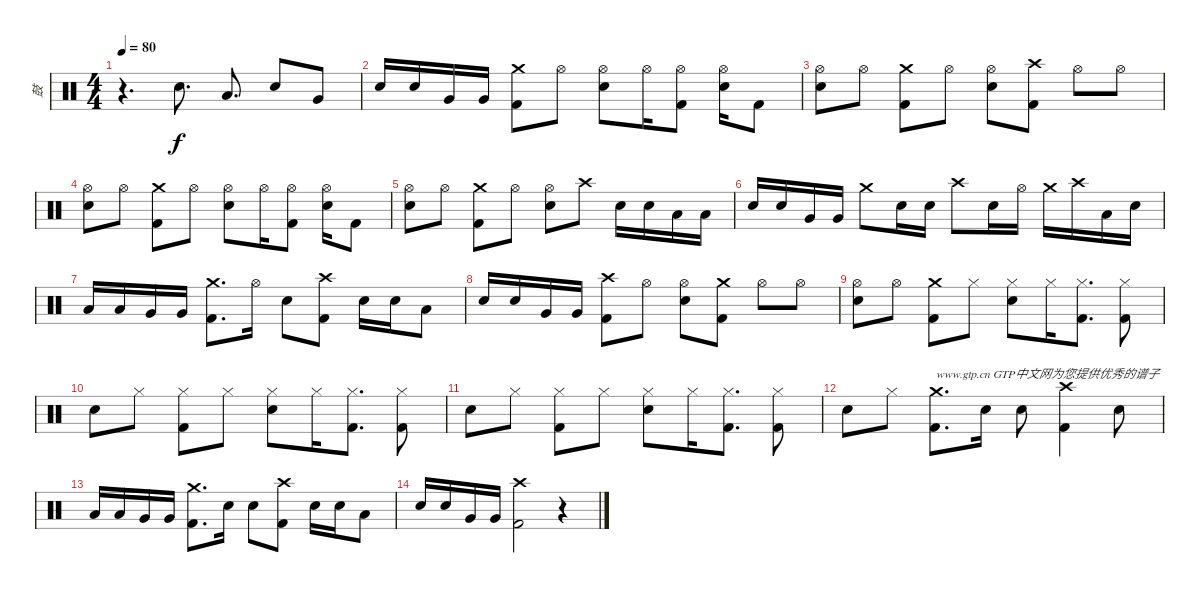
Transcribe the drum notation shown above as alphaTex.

\track ("鼓" "鼓") {instrument percussion}
\staff {score}
\articulation defaults
\ts (4 4)
\tempo 80
\clef neutral
\ks c
r.4{d dy f} "Snare (hit) 2".8{d} "Low Tom (hit)".8{d} "Snare (hit) 2".8 "Very Low Tom (hit)".8 |
"Snare (hit) 2".16 "Snare (hit) 2".16 "Very Low Tom (hit)".16 "Very Low Tom (hit)".16 ("Crash medium (hit)" "Kick (hit) 2").8 "Hi-Hat (open)".8 ("Hi-Hat (open)" "Snare (hit) 2").8 "Hi-Hat (open)".16 ("Hi-Hat (open)" "Kick (hit) 2").8 ("Hi-Hat (open)" "Snare (hit) 2").16 "Kick (hit) 2".8 |
("Hi-Hat (open)" "Snare (hit) 2").8 "Hi-Hat (open)".8 ("Crash medium (hit)" "Kick (hit) 2").8 "Hi-Hat (open)".8 ("Hi-Hat (open)" "Snare (hit) 2").8 ("Crash high (hit)" "Kick (hit) 2").8 "Hi-Hat (open)".8 "Hi-Hat (open)".8 |
("Hi-Hat (open)" "Snare (hit) 2").8 "Hi-Hat (open)".8 ("Crash medium (hit)" "Kick (hit) 2").8 "Hi-Hat (open)".8 ("Hi-Hat (open)" "Snare (hit) 2").8 "Hi-Hat (open)".16 ("Hi-Hat (open)" "Kick (hit) 2").8 ("Hi-Hat (open)" "Snare (hit) 2").16 "Kick (hit) 2".8 |
("Hi-Hat (open)" "Snare (hit) 2").8 "Hi-Hat (open)".8 ("Crash medium (hit)" "Kick (hit) 2").8 "Hi-Hat (open)".8 ("Hi-Hat (open)" "Snare (hit) 2").8 "Crash high (hit)".8 "Snare (hit) 2".16 "Snare (hit) 2".16 "Low Tom (hit)".16 "Low Tom (hit)".16 |
"Snare (hit) 2".16 "Snare (hit) 2".16 "Very Low Tom (hit)".16 "Very Low Tom (hit)".16 "Crash medium (hit)".8 "Snare (hit) 2".16 "Snare (hit) 2".16 "Crash high (hit)".8 "Snare (hit) 2".16 "Hi-Hat (open)".16 "Crash medium (hit)".16 "Crash high (hit)".16 "Low Tom (hit)".16 "Snare (hit)".16 |
"Low Tom (hit)".16 "Low Tom (hit)".16 "Very Low Tom (hit)".16 "Very Low Tom (hit)".16 ("Crash medium (hit)" "Kick (hit) 2").8{d} "Hi-Hat (open)".16 "Snare (hit) 2".8 ("Crash high (hit)" "Kick (hit) 2").8 "Snare (hit) 2".16 "Snare (hit) 2".16 "Low Tom (hit)".8 |
"Snare (hit) 2".16 "Snare (hit) 2".16 "Very Low Tom (hit)".16 "Very Low Tom (hit)".16 ("Crash high (hit)" "Kick (hit) 2").8 "Hi-Hat (open)".8 ("Hi-Hat (open)" "Snare (hit) 2").8 ("Crash medium (hit)" "Kick (hit) 2").8 "Hi-Hat (open)".8 "Hi-Hat (open)".8 |
("Hi-Hat (open)" "Snare (hit) 2").8 "Hi-Hat (open)".8 ("Crash medium (hit)" "Kick (hit) 2").8 "Hi-Hat (closed)".8 ("Hi-Hat (closed)" "Snare (hit) 2").8 "Hi-Hat (closed)".16 ("Hi-Hat (closed)" "Kick (hit) 2").8{d} ("Hi-Hat (closed)" "Kick (hit) 2").8 |
"Snare (hit) 2".8 "Hi-Hat (closed)".8 ("Hi-Hat (closed)" "Kick (hit) 2").8 "Hi-Hat (closed)".8 ("Hi-Hat (closed)" "Snare (hit) 2").8 "Hi-Hat (closed)".16 ("Hi-Hat (closed)" "Kick (hit) 2").8{d} ("Hi-Hat (closed)" "Kick (hit) 2").8 |
"Snare (hit) 2".8 "Hi-Hat (closed)".8 ("Hi-Hat (closed)" "Kick (hit) 2").8 "Hi-Hat (closed)".8 ("Hi-Hat (closed)" "Snare (hit) 2").8 "Hi-Hat (closed)".16 ("Hi-Hat (closed)" "Kick (hit) 2").8{d} ("Hi-Hat (closed)" "Kick (hit) 2").8 |
"Snare (hit) 2".8 "Hi-Hat (closed)".8 ("Crash medium (hit)" "Kick (hit) 2").8{d txt "www.gtp.cn GTP中文网为您提供优秀的谱子"} "Snare (hit) 2".16 "Snare (hit) 2".8 ("Crash high (hit)" "Kick (hit) 2").4 "Snare (hit) 2".8 |
"Low Tom (hit)".16 "Low Tom (hit)".16 "Very Low Tom (hit)".16 "Very Low Tom (hit)".16 ("Crash medium (hit)" "Kick (hit) 2").8{d} "Snare (hit) 2".16 "Snare (hit) 2".8 ("Crash high (hit)" "Kick (hit) 2").8 "Snare (hit) 2".16 "Snare (hit) 2".16 "Low Tom (hit)".8 |
"Snare (hit) 2".16 "Snare (hit) 2".16 "Very Low Tom (hit)".16 "Very Low Tom (hit)".16 ("Crash high (hit)" "Kick (hit) 2").2 r.4
